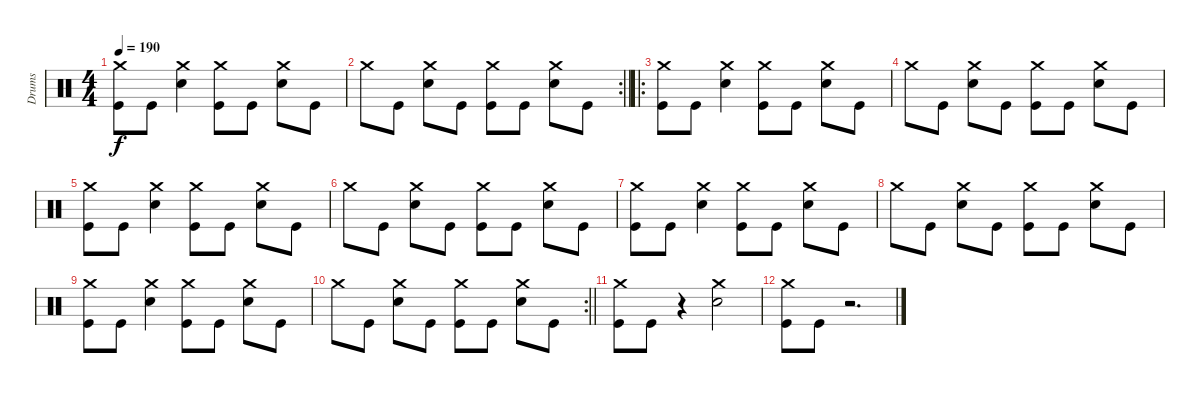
\track ("Drums" "Drums") {instrument percussion}
\staff {score}
\articulation defaults
\ts (4 4)
\tempo 190
\clef neutral
\ks c
("Crash medium (hit)" "Kick (hit)").8{dy f} "Kick (hit)".8 ("Crash medium (hit)" "Snare (hit) 2").4 ("Crash medium (hit)" "Kick (hit)").8 "Kick (hit)".8 ("Crash medium (hit)" "Snare (hit) 2").8 "Kick (hit)".8 |
\rc 2
\barLineRight lightlight "Crash medium (hit)".8 "Kick (hit)".8
("Crash medium (hit)" "Snare (hit) 2").8 "Kick (hit)".8 ("Crash medium (hit)" "Kick (hit)").8 "Kick (hit)".8 ("Crash medium (hit)" "Snare (hit) 2").8 "Kick (hit)".8 |
\ro
("Crash medium (hit)" "Kick (hit)").8 "Kick (hit)".8 ("Crash medium (hit)" "Snare (hit) 2").4 ("Crash medium (hit)" "Kick (hit)").8 "Kick (hit)".8 ("Crash medium (hit)" "Snare (hit) 2").8 "Kick (hit)".8 |
"Crash medium (hit)".8 "Kick (hit)".8 ("Crash medium (hit)" "Snare (hit) 2").8 "Kick (hit)".8 ("Crash medium (hit)" "Kick (hit)").8 "Kick (hit)".8 ("Crash medium (hit)" "Snare (hit) 2").8 "Kick (hit)".8 |
("Crash medium (hit)" "Kick (hit)").8 "Kick (hit)".8 ("Crash medium (hit)" "Snare (hit) 2").4 ("Crash medium (hit)" "Kick (hit)").8 "Kick (hit)".8 ("Crash medium (hit)" "Snare (hit) 2").8 "Kick (hit)".8 |
"Crash medium (hit)".8 "Kick (hit)".8 ("Crash medium (hit)" "Snare (hit) 2").8 "Kick (hit)".8 ("Crash medium (hit)" "Kick (hit)").8 "Kick (hit)".8 ("Crash medium (hit)" "Snare (hit) 2").8 "Kick (hit)".8 |
("Crash medium (hit)" "Kick (hit)").8 "Kick (hit)".8 ("Crash medium (hit)" "Snare (hit) 2").4 ("Crash medium (hit)" "Kick (hit)").8 "Kick (hit)".8 ("Crash medium (hit)" "Snare (hit) 2").8 "Kick (hit)".8 |
"Crash medium (hit)".8 "Kick (hit)".8 ("Crash medium (hit)" "Snare (hit) 2").8 "Kick (hit)".8 ("Crash medium (hit)" "Kick (hit)").8 "Kick (hit)".8 ("Crash medium (hit)" "Snare (hit) 2").8 "Kick (hit)".8 |
("Crash medium (hit)" "Kick (hit)").8 "Kick (hit)".8 ("Crash medium (hit)" "Snare (hit) 2").4 ("Crash medium (hit)" "Kick (hit)").8 "Kick (hit)".8 ("Crash medium (hit)" "Snare (hit) 2").8 "Kick (hit)".8 |
\rc 2
\barLineRight lightlight "Crash medium (hit)".8 "Kick (hit)".8
("Crash medium (hit)" "Snare (hit) 2").8 "Kick (hit)".8 ("Crash medium (hit)" "Kick (hit)").8 "Kick (hit)".8 ("Crash medium (hit)" "Snare (hit) 2").8 "Kick (hit)".8 |
("Crash medium (hit)" "Kick (hit)").8 "Kick (hit)".8 r.4 ("Crash medium (hit)" "Snare (hit) 2").2 |
("Crash medium (hit)" "Kick (hit)").8 "Kick (hit)".8 r.2{d}
